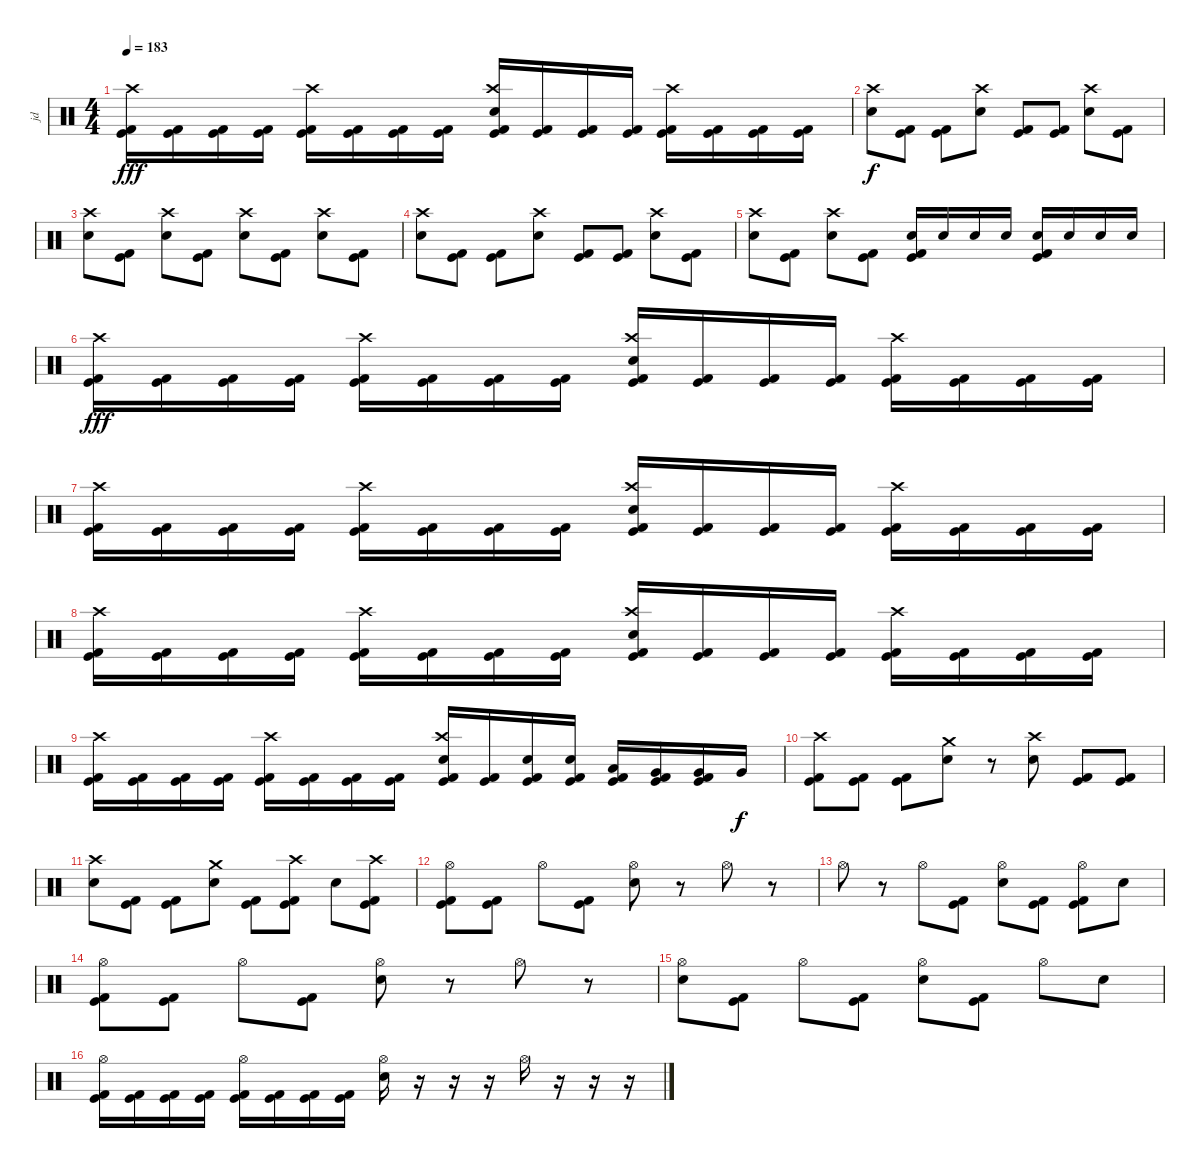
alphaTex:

\track ("jd" "jd") {instrument percussion}
\staff {score}
\articulation defaults
\ts (4 4)
\tempo 183
\clef neutral
\ks c
("Kick (hit)" "Kick (hit) 2" "Crash high (hit)").16{dy fff} ("Kick (hit)" "Kick (hit) 2").16 ("Kick (hit)" "Kick (hit) 2").16 ("Kick (hit)" "Kick (hit) 2").16 ("Kick (hit)" "Kick (hit) 2" "Crash high (hit)").16 ("Kick (hit)" "Kick (hit) 2").16 ("Kick (hit)" "Kick (hit) 2").16 ("Kick (hit)" "Kick (hit) 2").16 ("Kick (hit)" "Kick (hit) 2" "Electric Snare (hit)" "Crash high (hit)").16 ("Kick (hit)" "Kick (hit) 2").16 ("Kick (hit)" "Kick (hit) 2").16 ("Kick (hit)" "Kick (hit) 2").16 ("Kick (hit)" "Kick (hit) 2" "Crash high (hit)").16 ("Kick (hit)" "Kick (hit) 2").16 ("Kick (hit)" "Kick (hit) 2").16 ("Kick (hit)" "Kick (hit) 2").16 |
("Electric Snare (hit)" "Crash high (hit)").8{dy f} ("Kick (hit) 2" "Kick (hit)").8 ("Kick (hit) 2" "Kick (hit)").8 ("Electric Snare (hit)" "Crash high (hit)").8 ("Kick (hit) 2" "Kick (hit)").8 ("Kick (hit) 2" "Kick (hit)").8 ("Electric Snare (hit)" "Crash high (hit)").8 ("Kick (hit) 2" "Kick (hit)").8 |
("Electric Snare (hit)" "Crash high (hit)").8 ("Kick (hit) 2" "Kick (hit)").8 ("Electric Snare (hit)" "Crash high (hit)").8 ("Kick (hit) 2" "Kick (hit)").8 ("Electric Snare (hit)" "Crash high (hit)").8 ("Kick (hit) 2" "Kick (hit)").8 ("Electric Snare (hit)" "Crash high (hit)").8 ("Kick (hit) 2" "Kick (hit)").8 |
("Electric Snare (hit)" "Crash high (hit)").8 ("Kick (hit) 2" "Kick (hit)").8 ("Kick (hit) 2" "Kick (hit)").8 ("Electric Snare (hit)" "Crash high (hit)").8 ("Kick (hit) 2" "Kick (hit)").8 ("Kick (hit) 2" "Kick (hit)").8 ("Electric Snare (hit)" "Crash high (hit)").8 ("Kick (hit) 2" "Kick (hit)").8 |
("Electric Snare (hit)" "Crash high (hit)").8 ("Kick (hit) 2" "Kick (hit)").8 ("Electric Snare (hit)" "Crash high (hit)").8 ("Kick (hit) 2" "Kick (hit)").8 ("Electric Snare (hit)" "Kick (hit) 2" "Kick (hit)").16 "Electric Snare (hit)".16 "Electric Snare (hit)".16 "Electric Snare (hit)".16 ("Electric Snare (hit)" "Kick (hit) 2" "Kick (hit)").16 "Electric Snare (hit)".16 "Electric Snare (hit)".16 "Electric Snare (hit)".16 |
("Kick (hit)" "Kick (hit) 2" "Crash high (hit)").16{dy fff} ("Kick (hit)" "Kick (hit) 2").16 ("Kick (hit)" "Kick (hit) 2").16 ("Kick (hit)" "Kick (hit) 2").16 ("Kick (hit)" "Kick (hit) 2" "Crash high (hit)").16 ("Kick (hit)" "Kick (hit) 2").16 ("Kick (hit)" "Kick (hit) 2").16 ("Kick (hit)" "Kick (hit) 2").16 ("Kick (hit)" "Kick (hit) 2" "Electric Snare (hit)" "Crash high (hit)").16 ("Kick (hit)" "Kick (hit) 2").16 ("Kick (hit)" "Kick (hit) 2").16 ("Kick (hit)" "Kick (hit) 2").16 ("Kick (hit)" "Kick (hit) 2" "Crash high (hit)").16 ("Kick (hit)" "Kick (hit) 2").16 ("Kick (hit)" "Kick (hit) 2").16 ("Kick (hit)" "Kick (hit) 2").16 |
("Kick (hit)" "Kick (hit) 2" "Crash high (hit)").16 ("Kick (hit)" "Kick (hit) 2").16 ("Kick (hit)" "Kick (hit) 2").16 ("Kick (hit)" "Kick (hit) 2").16 ("Kick (hit)" "Kick (hit) 2" "Crash high (hit)").16 ("Kick (hit)" "Kick (hit) 2").16 ("Kick (hit)" "Kick (hit) 2").16 ("Kick (hit)" "Kick (hit) 2").16 ("Kick (hit)" "Kick (hit) 2" "Electric Snare (hit)" "Crash high (hit)").16 ("Kick (hit)" "Kick (hit) 2").16 ("Kick (hit)" "Kick (hit) 2").16 ("Kick (hit)" "Kick (hit) 2").16 ("Kick (hit)" "Kick (hit) 2" "Crash high (hit)").16 ("Kick (hit)" "Kick (hit) 2").16 ("Kick (hit)" "Kick (hit) 2").16 ("Kick (hit)" "Kick (hit) 2").16 |
("Kick (hit)" "Kick (hit) 2" "Crash high (hit)").16 ("Kick (hit)" "Kick (hit) 2").16 ("Kick (hit)" "Kick (hit) 2").16 ("Kick (hit)" "Kick (hit) 2").16 ("Kick (hit)" "Kick (hit) 2" "Crash high (hit)").16 ("Kick (hit)" "Kick (hit) 2").16 ("Kick (hit)" "Kick (hit) 2").16 ("Kick (hit)" "Kick (hit) 2").16 ("Kick (hit)" "Kick (hit) 2" "Electric Snare (hit)" "Crash high (hit)").16 ("Kick (hit)" "Kick (hit) 2").16 ("Kick (hit)" "Kick (hit) 2").16 ("Kick (hit)" "Kick (hit) 2").16 ("Kick (hit)" "Kick (hit) 2" "Crash high (hit)").16 ("Kick (hit)" "Kick (hit) 2").16 ("Kick (hit)" "Kick (hit) 2").16 ("Kick (hit)" "Kick (hit) 2").16 |
("Kick (hit)" "Kick (hit) 2" "Crash high (hit)").16 ("Kick (hit)" "Kick (hit) 2").16 ("Kick (hit)" "Kick (hit) 2").16 ("Kick (hit)" "Kick (hit) 2").16 ("Kick (hit)" "Kick (hit) 2" "Crash high (hit)").16 ("Kick (hit)" "Kick (hit) 2").16 ("Kick (hit)" "Kick (hit) 2").16 ("Kick (hit)" "Kick (hit) 2").16 ("Kick (hit)" "Kick (hit) 2" "Electric Snare (hit)" "Crash high (hit)").16 ("Kick (hit)" "Kick (hit) 2").16 ("Kick (hit)" "Kick (hit) 2" "Electric Snare (hit)").16 ("Kick (hit)" "Kick (hit) 2" "Electric Snare (hit)").16 ("Kick (hit)" "Kick (hit) 2" "Low Tom (hit)").16 ("Kick (hit)" "Kick (hit) 2" "Very Low Tom (hit)").16 ("Kick (hit)" "Kick (hit) 2" "Very Low Tom (hit)").16 "Very Low Tom (hit)".16{dy f} |
("Kick (hit) 2" "Kick (hit)" "Crash high (hit)").8 ("Kick (hit) 2" "Kick (hit)").8 ("Kick (hit) 2" "Kick (hit)").8 ("Electric Snare (hit)" "Crash medium (hit)").8 r.8 ("Electric Snare (hit)" "Crash high (hit)").8 ("Kick (hit) 2" "Kick (hit)").8 ("Kick (hit) 2" "Kick (hit)").8 |
("Electric Snare (hit)" "Crash high (hit)").8 ("Kick (hit) 2" "Kick (hit)").8 ("Kick (hit) 2" "Kick (hit)").8 ("Electric Snare (hit)" "Crash medium (hit)").8 ("Kick (hit) 2" "Kick (hit)").8 ("Kick (hit) 2" "Kick (hit)" "Crash high (hit)").8 "Electric Snare (hit)".8 ("Kick (hit) 2" "Kick (hit)" "Crash high (hit)").8 |
("Kick (hit) 2" "Kick (hit)" "Hi-Hat (open)").8 ("Kick (hit) 2" "Kick (hit)").8 "Hi-Hat (open)".8 ("Kick (hit) 2" "Kick (hit)").8 ("Electric Snare (hit)" "Hi-Hat (open)").8 r.8 "Hi-Hat (open)".8 r.8 |
"Hi-Hat (open)".8 r.8 "Hi-Hat (open)".8 ("Kick (hit) 2" "Kick (hit)").8 ("Electric Snare (hit)" "Hi-Hat (open)").8 ("Kick (hit) 2" "Kick (hit)").8 ("Kick (hit) 2" "Kick (hit)" "Hi-Hat (open)").8 "Electric Snare (hit)".8 |
("Kick (hit) 2" "Kick (hit)" "Hi-Hat (open)").8 ("Kick (hit) 2" "Kick (hit)").8 "Hi-Hat (open)".8 ("Kick (hit) 2" "Kick (hit)").8 ("Electric Snare (hit)" "Hi-Hat (open)").8 r.8 "Hi-Hat (open)".8 r.8 |
("Electric Snare (hit)" "Hi-Hat (open)").8 ("Kick (hit) 2" "Kick (hit)").8 "Hi-Hat (open)".8 ("Kick (hit) 2" "Kick (hit)").8 ("Electric Snare (hit)" "Hi-Hat (open)").8 ("Kick (hit) 2" "Kick (hit)").8 "Hi-Hat (open)".8 "Electric Snare (hit)".8 |
("Kick (hit) 2" "Kick (hit)" "Hi-Hat (open)").16 ("Kick (hit) 2" "Kick (hit)").16 ("Kick (hit) 2" "Kick (hit)").16 ("Kick (hit) 2" "Kick (hit)").16 ("Kick (hit) 2" "Kick (hit)" "Hi-Hat (open)").16 ("Kick (hit) 2" "Kick (hit)").16 ("Kick (hit) 2" "Kick (hit)").16 ("Kick (hit) 2" "Kick (hit)").16 ("Electric Snare (hit)" "Hi-Hat (open)").16 r.16 r.16 r.16 "Hi-Hat (open)".16 r.16 r.16 r.16
